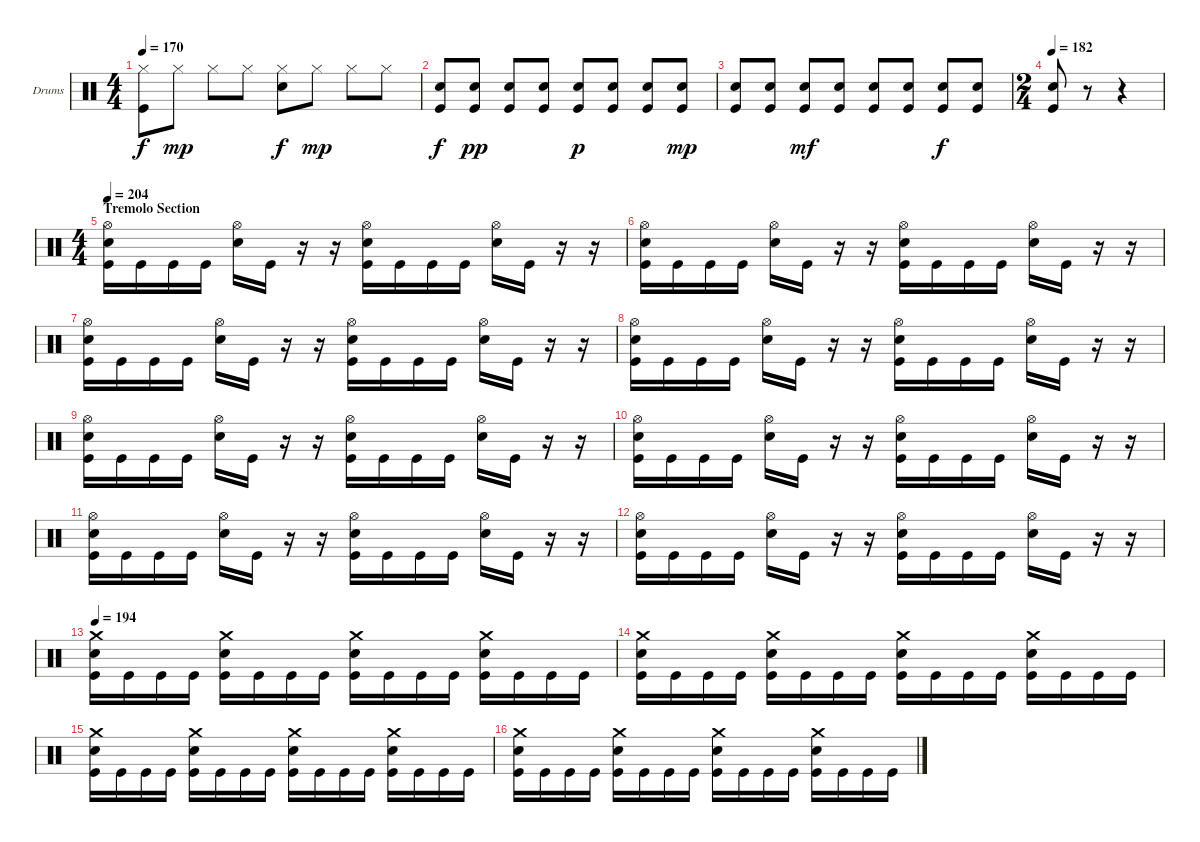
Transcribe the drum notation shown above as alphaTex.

\bracketExtendMode groupsimilarinstruments
\firstSystemTrackNameOrientation horizontal
\otherSystemsTrackNameOrientation horizontal
\track ("Drumkit" "Drums") {instrument percussion}
\staff {score}
\articulation defaults
\ts (4 4)
\tempo 170
\clef neutral
\ks c
("Hi-Hat (closed)" "Kick (hit)").8{dy f} "Hi-Hat (closed)".8{dy mp} "Hi-Hat (closed)".8 "Hi-Hat (closed)".8 ("Hi-Hat (closed)" "Snare (hit) 2").8{dy f} "Hi-Hat (closed)".8{dy mp} "Hi-Hat (closed)".8 "Hi-Hat (closed)".8 |
("Snare (hit) 2" "Kick (hit)").8{dy f} ("Snare (hit) 2" "Kick (hit)").8{dy pp} ("Snare (hit) 2" "Kick (hit)").8 ("Snare (hit) 2" "Kick (hit)").8 ("Snare (hit) 2" "Kick (hit)").8{dy p} ("Snare (hit) 2" "Kick (hit)").8 ("Snare (hit) 2" "Kick (hit)").8 ("Snare (hit) 2" "Kick (hit)").8{dy mp} |
("Snare (hit) 2" "Kick (hit)").8 ("Snare (hit) 2" "Kick (hit)").8 ("Snare (hit) 2" "Kick (hit)").8{dy mf} ("Snare (hit) 2" "Kick (hit)").8 ("Snare (hit) 2" "Kick (hit)").8 ("Snare (hit) 2" "Kick (hit)").8 ("Snare (hit) 2" "Kick (hit)").8{dy f} ("Snare (hit) 2" "Kick (hit)").8 |
\ts (2 4)
\tempo 182
("Snare (hit) 2" "Kick (hit)").8 r.8 r.4 |
\ts (4 4)
\section ("" "Tremolo Section")
\tempo 204
("Hi-Hat (open)" "Kick (hit)" "Snare (hit) 2").16 "Kick (hit)".16 "Kick (hit)".16 "Kick (hit)".16 ("Hi-Hat (open)" "Snare (hit) 2").16 "Kick (hit)".16 r.16 r.16 ("Hi-Hat (open)" "Snare (hit) 2" "Kick (hit)").16 "Kick (hit)".16 "Kick (hit)".16 "Kick (hit)".16 ("Hi-Hat (open)" "Snare (hit) 2").16 "Kick (hit)".16 r.16 r.16 |
("Hi-Hat (open)" "Kick (hit)" "Snare (hit) 2").16 "Kick (hit)".16 "Kick (hit)".16 "Kick (hit)".16 ("Hi-Hat (open)" "Snare (hit) 2").16 "Kick (hit)".16 r.16 r.16 ("Hi-Hat (open)" "Snare (hit) 2" "Kick (hit)").16 "Kick (hit)".16 "Kick (hit)".16 "Kick (hit)".16 ("Hi-Hat (open)" "Snare (hit) 2").16 "Kick (hit)".16 r.16 r.16 |
("Hi-Hat (open)" "Kick (hit)" "Snare (hit) 2").16 "Kick (hit)".16 "Kick (hit)".16 "Kick (hit)".16 ("Hi-Hat (open)" "Snare (hit) 2").16 "Kick (hit)".16 r.16 r.16 ("Hi-Hat (open)" "Snare (hit) 2" "Kick (hit)").16 "Kick (hit)".16 "Kick (hit)".16 "Kick (hit)".16 ("Hi-Hat (open)" "Snare (hit) 2").16 "Kick (hit)".16 r.16 r.16 |
("Hi-Hat (open)" "Kick (hit)" "Snare (hit) 2").16 "Kick (hit)".16 "Kick (hit)".16 "Kick (hit)".16 ("Hi-Hat (open)" "Snare (hit) 2").16 "Kick (hit)".16 r.16 r.16 ("Hi-Hat (open)" "Snare (hit) 2" "Kick (hit)").16 "Kick (hit)".16 "Kick (hit)".16 "Kick (hit)".16 ("Hi-Hat (open)" "Snare (hit) 2").16 "Kick (hit)".16 r.16 r.16 |
("Hi-Hat (open)" "Kick (hit)" "Snare (hit) 2").16 "Kick (hit)".16 "Kick (hit)".16 "Kick (hit)".16 ("Hi-Hat (open)" "Snare (hit) 2").16 "Kick (hit)".16 r.16 r.16 ("Hi-Hat (open)" "Snare (hit) 2" "Kick (hit)").16 "Kick (hit)".16 "Kick (hit)".16 "Kick (hit)".16 ("Hi-Hat (open)" "Snare (hit) 2").16 "Kick (hit)".16 r.16 r.16 |
("Hi-Hat (open)" "Kick (hit)" "Snare (hit) 2").16 "Kick (hit)".16 "Kick (hit)".16 "Kick (hit)".16 ("Hi-Hat (open)" "Snare (hit) 2").16 "Kick (hit)".16 r.16 r.16 ("Hi-Hat (open)" "Snare (hit) 2" "Kick (hit)").16 "Kick (hit)".16 "Kick (hit)".16 "Kick (hit)".16 ("Hi-Hat (open)" "Snare (hit) 2").16 "Kick (hit)".16 r.16 r.16 |
("Hi-Hat (open)" "Kick (hit)" "Snare (hit) 2").16 "Kick (hit)".16 "Kick (hit)".16 "Kick (hit)".16 ("Hi-Hat (open)" "Snare (hit) 2").16 "Kick (hit)".16 r.16 r.16 ("Hi-Hat (open)" "Snare (hit) 2" "Kick (hit)").16 "Kick (hit)".16 "Kick (hit)".16 "Kick (hit)".16 ("Hi-Hat (open)" "Snare (hit) 2").16 "Kick (hit)".16 r.16 r.16 |
("Hi-Hat (open)" "Kick (hit)" "Snare (hit) 2").16 "Kick (hit)".16 "Kick (hit)".16 "Kick (hit)".16 ("Hi-Hat (open)" "Snare (hit) 2").16 "Kick (hit)".16 r.16 r.16 ("Hi-Hat (open)" "Snare (hit) 2" "Kick (hit)").16 "Kick (hit)".16 "Kick (hit)".16 "Kick (hit)".16 ("Hi-Hat (open)" "Snare (hit) 2").16 "Kick (hit)".16 r.16 r.16 |
\tempo 194
("Crash medium (hit)" "Snare (hit) 2" "Kick (hit)").16 "Kick (hit)".16 "Kick (hit)".16 "Kick (hit)".16 ("Crash medium (hit)" "Snare (hit) 2" "Kick (hit)").16 "Kick (hit)".16 "Kick (hit)".16 "Kick (hit)".16 ("Crash medium (hit)" "Snare (hit) 2" "Kick (hit)").16 "Kick (hit)".16 "Kick (hit)".16 "Kick (hit)".16 ("Crash medium (hit)" "Snare (hit) 2" "Kick (hit)").16 "Kick (hit)".16 "Kick (hit)".16 "Kick (hit)".16 |
("Crash medium (hit)" "Snare (hit) 2" "Kick (hit)").16 "Kick (hit)".16 "Kick (hit)".16 "Kick (hit)".16 ("Crash medium (hit)" "Snare (hit) 2" "Kick (hit)").16 "Kick (hit)".16 "Kick (hit)".16 "Kick (hit)".16 ("Crash medium (hit)" "Snare (hit) 2" "Kick (hit)").16 "Kick (hit)".16 "Kick (hit)".16 "Kick (hit)".16 ("Crash medium (hit)" "Snare (hit) 2" "Kick (hit)").16 "Kick (hit)".16 "Kick (hit)".16 "Kick (hit)".16 |
("Crash medium (hit)" "Snare (hit) 2" "Kick (hit)").16 "Kick (hit)".16 "Kick (hit)".16 "Kick (hit)".16 ("Crash medium (hit)" "Snare (hit) 2" "Kick (hit)").16 "Kick (hit)".16 "Kick (hit)".16 "Kick (hit)".16 ("Crash medium (hit)" "Snare (hit) 2" "Kick (hit)").16 "Kick (hit)".16 "Kick (hit)".16 "Kick (hit)".16 ("Crash medium (hit)" "Snare (hit) 2" "Kick (hit)").16 "Kick (hit)".16 "Kick (hit)".16 "Kick (hit)".16 |
("Crash medium (hit)" "Snare (hit) 2" "Kick (hit)").16 "Kick (hit)".16 "Kick (hit)".16 "Kick (hit)".16 ("Crash medium (hit)" "Snare (hit) 2" "Kick (hit)").16 "Kick (hit)".16 "Kick (hit)".16 "Kick (hit)".16 ("Crash medium (hit)" "Snare (hit) 2" "Kick (hit)").16 "Kick (hit)".16 "Kick (hit)".16 "Kick (hit)".16 ("Crash medium (hit)" "Snare (hit) 2" "Kick (hit)").16 "Kick (hit)".16 "Kick (hit)".16 "Kick (hit)".16
